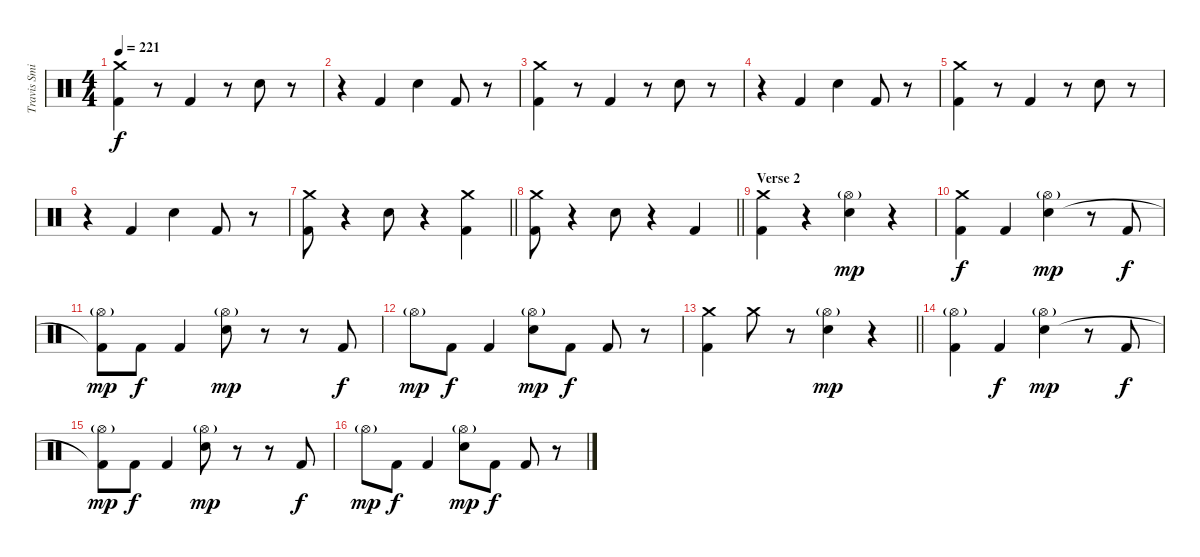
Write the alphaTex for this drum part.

\track ("Travis Smith" "Travis Smi") {instrument percussion}
\staff {score}
\articulation defaults
\ts (4 4)
\tempo 221
\clef neutral
\ks c
("Crash medium (hit)" "Kick (hit) 2").4{dy f} r.8 "Kick (hit) 2".4 r.8 "Electric Snare (hit)".8 r.8 |
r.4 "Kick (hit) 2".4 "Electric Snare (hit)".4 "Kick (hit) 2".8 r.8 |
("Crash medium (hit)" "Kick (hit) 2").4 r.8 "Kick (hit) 2".4 r.8 "Electric Snare (hit)".8 r.8 |
r.4 "Kick (hit) 2".4 "Electric Snare (hit)".4 "Kick (hit) 2".8 r.8 |
("Crash medium (hit)" "Kick (hit) 2").4 r.8 "Kick (hit) 2".4 r.8 "Electric Snare (hit)".8 r.8 |
r.4 "Kick (hit) 2".4 "Electric Snare (hit)".4 "Kick (hit) 2".8 r.8 |
\barLineRight lightlight
("Crash medium (hit)" "Kick (hit) 2").8 r.4 "Electric Snare (hit)".8 r.4 ("Crash medium (hit)" "Kick (hit) 2").4 |
\barLineRight lightlight
("Crash medium (hit)" "Kick (hit) 2").8 r.4 "Electric Snare (hit)".8 r.4 "Kick (hit) 2".4 |
\section ("" "Verse 2")
("Crash medium (hit)" "Kick (hit) 2").4 r.4 ("Hi-Hat (open)"{g} "Electric Snare (hit)").4{dy mp} r.4 |
("Crash medium (hit)" "Kick (hit) 2").4{dy f} "Kick (hit) 2".4 ("Hi-Hat (open)"{g} "Electric Snare (hit)").4{dy mp} r.8 "Kick (hit) 2".8{dy f} |
("Hi-Hat (open)"{g} "Kick (hit) 2"{t}).8{dy mp} "Kick (hit) 2".8{dy f} "Kick (hit) 2".4 ("Hi-Hat (open)"{g} "Electric Snare (hit)").8{dy mp} r.8 r.8 "Kick (hit) 2".8{dy f} |
"Hi-Hat (open)"{g}.8{dy mp} "Kick (hit) 2".8{dy f} "Kick (hit) 2".4 ("Hi-Hat (open)"{g} "Electric Snare (hit)").8{dy mp} "Kick (hit) 2".8{dy f} "Kick (hit) 2".8 r.8 |
\barLineRight lightlight
("Crash medium (hit)" "Kick (hit) 2").4 "Crash medium (hit)".8 r.8 ("Hi-Hat (open)"{g} "Electric Snare (hit)").4{dy mp} r.4 |
("Hi-Hat (open)"{g} "Kick (hit) 2").4 "Kick (hit) 2".4{dy f} ("Hi-Hat (open)"{g} "Electric Snare (hit)").4{dy mp} r.8 "Kick (hit) 2".8{dy f} |
("Hi-Hat (open)"{g} "Kick (hit) 2"{t}).8{dy mp} "Kick (hit) 2".8{dy f} "Kick (hit) 2".4 ("Hi-Hat (open)"{g} "Electric Snare (hit)").8{dy mp} r.8 r.8 "Kick (hit) 2".8{dy f} |
"Hi-Hat (open)"{g}.8{dy mp} "Kick (hit) 2".8{dy f} "Kick (hit) 2".4 ("Hi-Hat (open)"{g} "Electric Snare (hit)").8{dy mp} "Kick (hit) 2".8{dy f} "Kick (hit) 2".8 r.8
